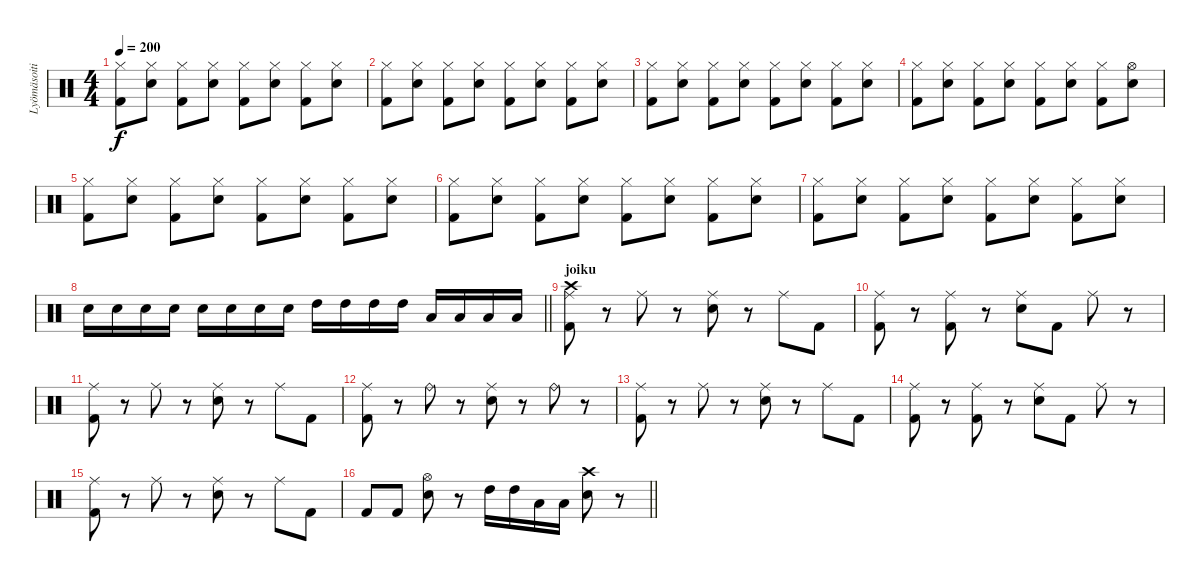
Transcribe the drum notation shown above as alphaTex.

\track ("Lyömäsoitin" "Lyömäsoiti") {instrument percussion}
\staff {score}
\articulation defaults
\ts (4 4)
\tempo 200
\clef neutral
\ks c
("Hi-Hat (closed)" "Kick (hit) 2").8{dy f} ("Hi-Hat (closed)" "Electric Snare (hit)").8 ("Hi-Hat (closed)" "Kick (hit) 2").8 ("Hi-Hat (closed)" "Electric Snare (hit)").8 ("Hi-Hat (closed)" "Kick (hit) 2").8 ("Hi-Hat (closed)" "Electric Snare (hit)").8 ("Hi-Hat (closed)" "Kick (hit) 2").8 ("Hi-Hat (closed)" "Electric Snare (hit)").8 |
("Hi-Hat (closed)" "Kick (hit) 2").8 ("Hi-Hat (closed)" "Electric Snare (hit)").8 ("Hi-Hat (closed)" "Kick (hit) 2").8 ("Hi-Hat (closed)" "Electric Snare (hit)").8 ("Hi-Hat (closed)" "Kick (hit) 2").8 ("Hi-Hat (closed)" "Electric Snare (hit)").8 ("Hi-Hat (closed)" "Kick (hit) 2").8 ("Hi-Hat (closed)" "Electric Snare (hit)").8 |
("Hi-Hat (closed)" "Kick (hit) 2").8 ("Hi-Hat (closed)" "Electric Snare (hit)").8 ("Hi-Hat (closed)" "Kick (hit) 2").8 ("Hi-Hat (closed)" "Electric Snare (hit)").8 ("Hi-Hat (closed)" "Kick (hit) 2").8 ("Hi-Hat (closed)" "Electric Snare (hit)").8 ("Hi-Hat (closed)" "Kick (hit) 2").8 ("Hi-Hat (closed)" "Electric Snare (hit)").8 |
("Hi-Hat (closed)" "Kick (hit) 2").8 ("Hi-Hat (closed)" "Electric Snare (hit)").8 ("Hi-Hat (closed)" "Kick (hit) 2").8 ("Hi-Hat (closed)" "Electric Snare (hit)").8 ("Hi-Hat (closed)" "Kick (hit) 2").8 ("Hi-Hat (closed)" "Electric Snare (hit)").8 ("Hi-Hat (closed)" "Kick (hit) 2").8 ("Hi-Hat (open)" "Electric Snare (hit)").8 |
("Hi-Hat (closed)" "Kick (hit) 2").8 ("Hi-Hat (closed)" "Electric Snare (hit)").8 ("Hi-Hat (closed)" "Kick (hit) 2").8 ("Hi-Hat (closed)" "Electric Snare (hit)").8 ("Hi-Hat (closed)" "Kick (hit) 2").8 ("Hi-Hat (closed)" "Electric Snare (hit)").8 ("Hi-Hat (closed)" "Kick (hit) 2").8 ("Hi-Hat (closed)" "Electric Snare (hit)").8 |
("Hi-Hat (closed)" "Kick (hit) 2").8 ("Hi-Hat (closed)" "Electric Snare (hit)").8 ("Hi-Hat (closed)" "Kick (hit) 2").8 ("Hi-Hat (closed)" "Electric Snare (hit)").8 ("Hi-Hat (closed)" "Kick (hit) 2").8 ("Hi-Hat (closed)" "Electric Snare (hit)").8 ("Hi-Hat (closed)" "Kick (hit) 2").8 ("Hi-Hat (closed)" "Electric Snare (hit)").8 |
("Hi-Hat (closed)" "Kick (hit) 2").8 ("Hi-Hat (closed)" "Electric Snare (hit)").8 ("Hi-Hat (closed)" "Kick (hit) 2").8 ("Hi-Hat (closed)" "Electric Snare (hit)").8 ("Hi-Hat (closed)" "Kick (hit) 2").8 ("Hi-Hat (closed)" "Electric Snare (hit)").8 ("Hi-Hat (closed)" "Kick (hit) 2").8 ("Hi-Hat (closed)" "Electric Snare (hit)").8 |
\barLineRight lightlight "Electric Snare (hit)".16 "Electric Snare (hit)".16 "Electric Snare (hit)".16 "Electric Snare (hit)".16 "Electric Snare (hit)".16 "Electric Snare (hit)".16 "Electric Snare (hit)".16 "Electric Snare (hit)".16 "High Tom (hit)".16 "High Tom (hit)".16 "High Tom (hit)".16 "High Tom (hit)".16 "Low Tom (hit)".16 "Low Tom (hit)".16 "Low Tom (hit)".16 "Low Tom (hit)".16
|
\section ("" "joiku")
("Crash high (hit)" "Ride (middle)" "Kick (hit) 2").8 r.8 "Ride (middle)".8 r.8 ("Electric Snare (hit)" "Ride (middle)").8 r.8 "Ride (middle)".8 "Kick (hit) 2".8 |
("Ride (middle)" "Kick (hit) 2").8 r.8 ("Ride (middle)" "Kick (hit) 2").8 r.8 ("Electric Snare (hit)" "Ride (middle)").8 "Kick (hit) 2".8 "Ride (middle)".8 r.8 |
("Ride (middle)" "Kick (hit) 2").8 r.8 "Ride (middle)".8 r.8 ("Electric Snare (hit)" "Ride (middle)").8 r.8 "Ride (middle)".8 "Kick (hit) 2".8 |
("Ride (middle)" "Kick (hit) 2").8 r.8 "Ride (bell)".8 r.8 ("Electric Snare (hit)" "Ride (middle)").8 r.8 "Ride (bell)".8 r.8 |
("Ride (middle)" "Kick (hit) 2").8 r.8 "Ride (middle)".8 r.8 ("Electric Snare (hit)" "Ride (middle)").8 r.8 "Ride (middle)".8 "Kick (hit) 2".8 |
("Ride (middle)" "Kick (hit) 2").8 r.8 ("Ride (middle)" "Kick (hit) 2").8 r.8 ("Electric Snare (hit)" "Ride (middle)").8 "Kick (hit) 2".8 "Ride (middle)".8 r.8 |
("Ride (middle)" "Kick (hit) 2").8 r.8 "Ride (middle)".8 r.8 ("Electric Snare (hit)" "Ride (middle)").8 r.8 "Ride (middle)".8 "Kick (hit) 2".8 |
\barLineRight lightlight "Kick (hit) 2".8 "Kick (hit) 2".8
("Hi-Hat (open)" "Electric Snare (hit)").8 r.8 "High Tom (hit)".16 "High Tom (hit)".16 "Low Tom (hit)".16 "Low Tom (hit)".16 ("Crash high (hit)" "Electric Snare (hit)").8 r.8
